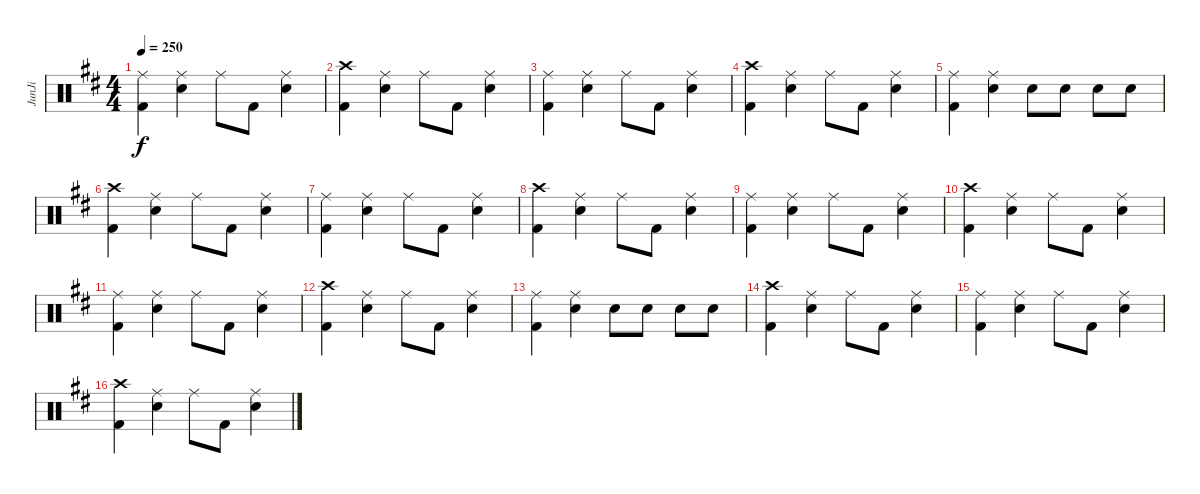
\track ("JunJi" "JunJi") {instrument percussion}
\staff {score}
\articulation defaults
\ts (4 4)
\tempo 250
\clef neutral
\ks d
("Ride (middle)" "Kick (hit) 2").4{dy f} ("Ride (middle)" "Snare (hit) 2").4 "Ride (middle)".8 "Kick (hit) 2".8 ("Ride (middle)" "Snare (hit) 2").4 |
("Crash high (hit)" "Kick (hit) 2").4 ("Ride (middle)" "Snare (hit) 2").4 "Ride (middle)".8 "Kick (hit) 2".8 ("Ride (middle)" "Snare (hit) 2").4 |
("Ride (middle)" "Kick (hit) 2").4 ("Ride (middle)" "Snare (hit) 2").4 "Ride (middle)".8 "Kick (hit) 2".8 ("Ride (middle)" "Snare (hit) 2").4 |
("Crash high (hit)" "Kick (hit) 2").4 ("Ride (middle)" "Snare (hit) 2").4 "Ride (middle)".8 "Kick (hit) 2".8 ("Ride (middle)" "Snare (hit) 2").4 |
("Ride (middle)" "Kick (hit) 2").4 ("Ride (middle)" "Snare (hit) 2").4 "Snare (hit) 2".8 "Snare (hit) 2".8 "Snare (hit) 2".8 "Snare (hit) 2".8 |
("Crash high (hit)" "Kick (hit) 2").4 ("Ride (middle)" "Snare (hit) 2").4 "Ride (middle)".8 "Kick (hit) 2".8 ("Ride (middle)" "Snare (hit) 2").4 |
("Ride (middle)" "Kick (hit) 2").4 ("Ride (middle)" "Snare (hit) 2").4 "Ride (middle)".8 "Kick (hit) 2".8 ("Ride (middle)" "Snare (hit) 2").4 |
("Crash high (hit)" "Kick (hit) 2").4 ("Ride (middle)" "Snare (hit) 2").4 "Ride (middle)".8 "Kick (hit) 2".8 ("Ride (middle)" "Snare (hit) 2").4 |
("Ride (middle)" "Kick (hit) 2").4 ("Ride (middle)" "Snare (hit) 2").4 "Ride (middle)".8 "Kick (hit) 2".8 ("Ride (middle)" "Snare (hit) 2").4 |
("Crash high (hit)" "Kick (hit) 2").4 ("Ride (middle)" "Snare (hit) 2").4 "Ride (middle)".8 "Kick (hit) 2".8 ("Ride (middle)" "Snare (hit) 2").4 |
("Ride (middle)" "Kick (hit) 2").4 ("Ride (middle)" "Snare (hit) 2").4 "Ride (middle)".8 "Kick (hit) 2".8 ("Ride (middle)" "Snare (hit) 2").4 |
("Crash high (hit)" "Kick (hit) 2").4 ("Ride (middle)" "Snare (hit) 2").4 "Ride (middle)".8 "Kick (hit) 2".8 ("Ride (middle)" "Snare (hit) 2").4 |
("Ride (middle)" "Kick (hit) 2").4 ("Ride (middle)" "Snare (hit) 2").4 "Snare (hit) 2".8 "Snare (hit) 2".8 "Snare (hit) 2".8 "Snare (hit) 2".8 |
("Crash high (hit)" "Kick (hit) 2").4 ("Ride (middle)" "Snare (hit) 2").4 "Ride (middle)".8 "Kick (hit) 2".8 ("Ride (middle)" "Snare (hit) 2").4 |
("Ride (middle)" "Kick (hit) 2").4 ("Ride (middle)" "Snare (hit) 2").4 "Ride (middle)".8 "Kick (hit) 2".8 ("Ride (middle)" "Snare (hit) 2").4 |
("Crash high (hit)" "Kick (hit) 2").4 ("Ride (middle)" "Snare (hit) 2").4 "Ride (middle)".8 "Kick (hit) 2".8 ("Ride (middle)" "Snare (hit) 2").4
